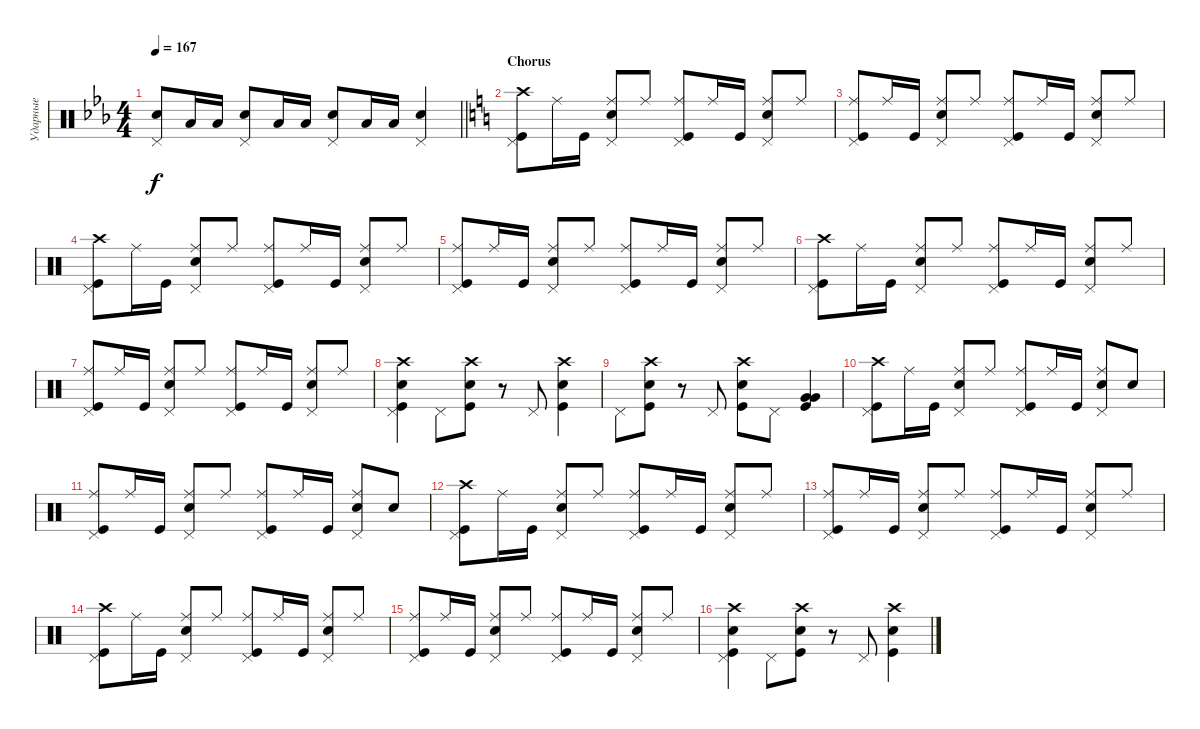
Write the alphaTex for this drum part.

\track ("Ударные" "Ударные") {instrument percussion}
\staff {score}
\articulation defaults
\ts (4 4)
\tempo 167
\clef neutral
\barLineRight lightlight
\ks cminor
("Pedal Hi-Hat (hit)" "Snare (hit) 2").8{bd 60 dy f} "Low Floor Tom (hit)".16 "Low Floor Tom (hit)".16 ("Snare (hit) 2" "Pedal Hi-Hat (hit)").8{bd 60} "Low Floor Tom (hit)".16 "Low Floor Tom (hit)".16 ("Snare (hit) 2" "Pedal Hi-Hat (hit)").8{bd 60} "Low Floor Tom (hit)".16 "Low Floor Tom (hit)".16 ("Snare (hit) 2" "Pedal Hi-Hat (hit)").4{bd 60} |
\section ("" "Chorus")
\ks aminor
("Kick (hit)" "Pedal Hi-Hat (hit)" "Crash high (hit)").8 "Ride (middle)".16 "Kick (hit)".16 ("Ride (middle)" "Snare (hit) 2" "Pedal Hi-Hat (hit)").8 "Ride (middle)".8 ("Ride (middle)" "Kick (hit)" "Pedal Hi-Hat (hit)").8 "Ride (middle)".16 "Kick (hit)".16 ("Ride (middle)" "Snare (hit) 2" "Pedal Hi-Hat (hit)").8 "Ride (middle)".8 |
("Kick (hit)" "Ride (middle)" "Pedal Hi-Hat (hit)").8 "Ride (middle)".16 "Kick (hit)".16 ("Snare (hit) 2" "Ride (middle)" "Pedal Hi-Hat (hit)").8 "Ride (middle)".8 ("Ride (middle)" "Kick (hit)" "Pedal Hi-Hat (hit)").8 "Ride (middle)".16 "Kick (hit)".16 ("Snare (hit) 2" "Ride (middle)" "Pedal Hi-Hat (hit)").8 "Ride (middle)".8 |
("Kick (hit)" "Pedal Hi-Hat (hit)" "Crash high (hit)").8 "Ride (middle)".16 "Kick (hit)".16 ("Ride (middle)" "Snare (hit) 2" "Pedal Hi-Hat (hit)").8 "Ride (middle)".8 ("Ride (middle)" "Kick (hit)" "Pedal Hi-Hat (hit)").8 "Ride (middle)".16 "Kick (hit)".16 ("Ride (middle)" "Snare (hit) 2" "Pedal Hi-Hat (hit)").8 "Ride (middle)".8 |
("Kick (hit)" "Ride (middle)" "Pedal Hi-Hat (hit)").8 "Ride (middle)".16 "Kick (hit)".16 ("Snare (hit) 2" "Ride (middle)" "Pedal Hi-Hat (hit)").8 "Ride (middle)".8 ("Ride (middle)" "Kick (hit)" "Pedal Hi-Hat (hit)").8 "Ride (middle)".16 "Kick (hit)".16 ("Snare (hit) 2" "Ride (middle)" "Pedal Hi-Hat (hit)").8 "Ride (middle)".8 |
("Kick (hit)" "Pedal Hi-Hat (hit)" "Crash high (hit)").8 "Ride (middle)".16 "Kick (hit)".16 ("Ride (middle)" "Snare (hit) 2" "Pedal Hi-Hat (hit)").8 "Ride (middle)".8 ("Ride (middle)" "Kick (hit)" "Pedal Hi-Hat (hit)").8 "Ride (middle)".16 "Kick (hit)".16 ("Ride (middle)" "Snare (hit) 2" "Pedal Hi-Hat (hit)").8 "Ride (middle)".8 |
("Kick (hit)" "Ride (middle)" "Pedal Hi-Hat (hit)").8 "Ride (middle)".16 "Kick (hit)".16 ("Snare (hit) 2" "Ride (middle)" "Pedal Hi-Hat (hit)").8 "Ride (middle)".8 ("Ride (middle)" "Kick (hit)" "Pedal Hi-Hat (hit)").8 "Ride (middle)".16 "Kick (hit)".16 ("Snare (hit) 2" "Ride (middle)" "Pedal Hi-Hat (hit)").8 "Ride (middle)".8 |
("Snare (hit) 2" "Crash high (hit)" "Kick (hit)" "Pedal Hi-Hat (hit)").4 "Pedal Hi-Hat (hit)".8 ("Crash high (hit)" "Kick (hit)" "Snare (hit) 2").8 r.8 "Pedal Hi-Hat (hit)".8 ("Crash high (hit)" "Snare (hit) 2" "Kick (hit)").4 |
"Pedal Hi-Hat (hit)".8 ("Crash high (hit)" "Kick (hit)" "Snare (hit) 2").8 r.8 "Pedal Hi-Hat (hit)".8 ("Kick (hit)" "Snare (hit) 2" "Crash high (hit)").8 "Pedal Hi-Hat (hit)".8 ("Kick (hit)" "Very Low Tom (hit)" "Very Low Tom (hit)").4{bd 60} |
("Kick (hit)" "Pedal Hi-Hat (hit)" "Crash high (hit)").8 "Ride (middle)".16 "Kick (hit)".16 ("Ride (middle)" "Snare (hit) 2" "Pedal Hi-Hat (hit)").8 "Ride (middle)".8 ("Ride (middle)" "Kick (hit)" "Pedal Hi-Hat (hit)").8 "Ride (middle)".16 "Kick (hit)".16 ("Ride (middle)" "Snare (hit) 2" "Pedal Hi-Hat (hit)").8 "Snare (hit) 2".8 |
("Kick (hit)" "Ride (middle)" "Pedal Hi-Hat (hit)").8 "Ride (middle)".16 "Kick (hit)".16 ("Snare (hit) 2" "Ride (middle)" "Pedal Hi-Hat (hit)").8 "Ride (middle)".8 ("Ride (middle)" "Kick (hit)" "Pedal Hi-Hat (hit)").8 "Ride (middle)".16 "Kick (hit)".16 ("Ride (middle)" "Snare (hit) 2" "Pedal Hi-Hat (hit)").8 "Snare (hit) 2".8 |
("Kick (hit)" "Pedal Hi-Hat (hit)" "Crash high (hit)").8 "Ride (middle)".16 "Kick (hit)".16 ("Ride (middle)" "Snare (hit) 2" "Pedal Hi-Hat (hit)").8 "Ride (middle)".8 ("Ride (middle)" "Kick (hit)" "Pedal Hi-Hat (hit)").8 "Ride (middle)".16 "Kick (hit)".16 ("Ride (middle)" "Snare (hit) 2" "Pedal Hi-Hat (hit)").8 "Ride (middle)".8 |
("Kick (hit)" "Ride (middle)" "Pedal Hi-Hat (hit)").8 "Ride (middle)".16 "Kick (hit)".16 ("Snare (hit) 2" "Ride (middle)" "Pedal Hi-Hat (hit)").8 "Ride (middle)".8 ("Ride (middle)" "Kick (hit)" "Pedal Hi-Hat (hit)").8 "Ride (middle)".16 "Kick (hit)".16 ("Snare (hit) 2" "Ride (middle)" "Pedal Hi-Hat (hit)").8 "Ride (middle)".8 |
("Kick (hit)" "Pedal Hi-Hat (hit)" "Crash high (hit)").8 "Ride (middle)".16 "Kick (hit)".16 ("Ride (middle)" "Snare (hit) 2" "Pedal Hi-Hat (hit)").8 "Ride (middle)".8 ("Ride (middle)" "Kick (hit)" "Pedal Hi-Hat (hit)").8 "Ride (middle)".16 "Kick (hit)".16 ("Ride (middle)" "Snare (hit) 2" "Pedal Hi-Hat (hit)").8 "Ride (middle)".8 |
("Kick (hit)" "Ride (middle)" "Pedal Hi-Hat (hit)").8 "Ride (middle)".16 "Kick (hit)".16 ("Snare (hit) 2" "Ride (middle)" "Pedal Hi-Hat (hit)").8 "Ride (middle)".8 ("Ride (middle)" "Kick (hit)" "Pedal Hi-Hat (hit)").8 "Ride (middle)".16 "Kick (hit)".16 ("Snare (hit) 2" "Ride (middle)" "Pedal Hi-Hat (hit)").8 "Ride (middle)".8 |
("Snare (hit) 2" "Crash high (hit)" "Kick (hit)" "Pedal Hi-Hat (hit)").4 "Pedal Hi-Hat (hit)".8 ("Crash high (hit)" "Kick (hit)" "Snare (hit) 2").8 r.8 "Pedal Hi-Hat (hit)".8 ("Crash high (hit)" "Snare (hit) 2" "Kick (hit)").4
